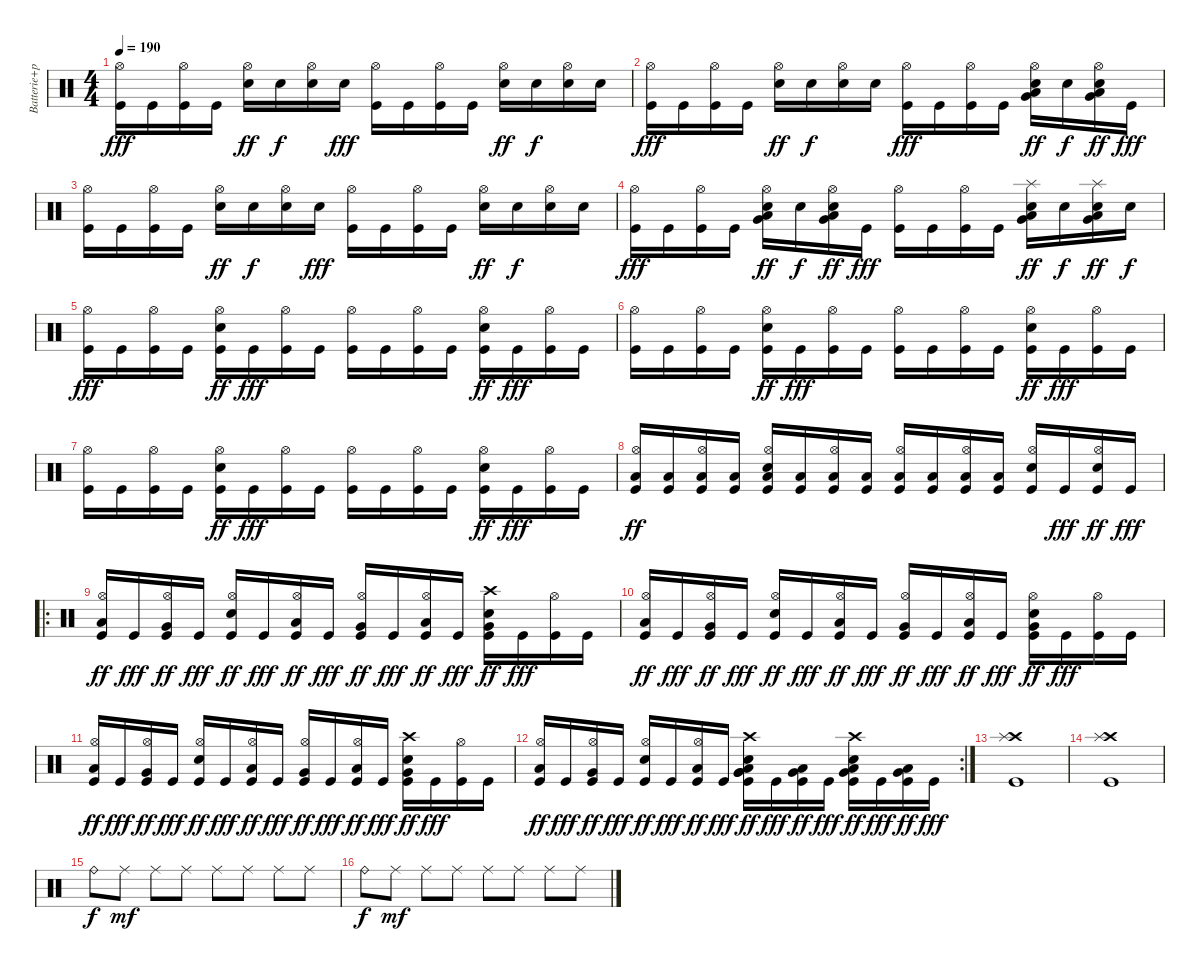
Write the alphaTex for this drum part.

\track ("Batterie+percussions" "Batterie+p") {instrument percussion}
\staff {score}
\articulation defaults
\ts (4 4)
\tempo 190
\clef neutral
\ks c
("Kick (hit)" "Hi-Hat (open)").16{dy fff} "Kick (hit)".16 ("Kick (hit)" "Hi-Hat (open)").16 "Kick (hit)".16 ("Electric Snare (hit)" "Hi-Hat (open)").16{dy ff} "Snare (hit)".16{dy f} ("Snare (hit)" "Hi-Hat (open)").16 "Snare (hit)".16{dy fff} ("Kick (hit)" "Hi-Hat (open)").16 "Kick (hit)".16 ("Kick (hit)" "Hi-Hat (open)").16 "Kick (hit)".16 ("Electric Snare (hit)" "Hi-Hat (open)").16{dy ff} "Snare (hit)".16{dy f} ("Snare (hit)" "Hi-Hat (open)").16 "Snare (hit)".16 |
("Kick (hit)" "Hi-Hat (open)").16{dy fff} "Kick (hit)".16 ("Kick (hit)" "Hi-Hat (open)").16 "Kick (hit)".16 ("Electric Snare (hit)" "Hi-Hat (open)").16{dy ff} "Snare (hit)".16{dy f} ("Snare (hit)" "Hi-Hat (open)").16 "Snare (hit)".16 ("Kick (hit)" "Hi-Hat (open)").16{dy fff} "Kick (hit)".16 ("Kick (hit)" "Hi-Hat (open)").16 "Kick (hit)".16 ("Electric Snare (hit)" "Hi-Hat (open)" "Low Floor Tom (hit)" "Very Low Tom (hit)").16{dy ff} "Snare (hit)".16{dy f} ("Electric Snare (hit)" "Hi-Hat (open)" "Low Floor Tom (hit)" "Very Low Tom (hit)").16{dy ff} "Kick (hit)".16{dy fff} |
("Kick (hit)" "Hi-Hat (open)").16 "Kick (hit)".16 ("Kick (hit)" "Hi-Hat (open)").16 "Kick (hit)".16 ("Electric Snare (hit)" "Hi-Hat (open)").16{dy ff} "Snare (hit)".16{dy f} ("Snare (hit)" "Hi-Hat (open)").16 "Snare (hit)".16{dy fff} ("Kick (hit)" "Hi-Hat (open)").16 "Kick (hit)".16 ("Kick (hit)" "Hi-Hat (open)").16 "Kick (hit)".16 ("Electric Snare (hit)" "Hi-Hat (open)").16{dy ff} "Snare (hit)".16{dy f} ("Snare (hit)" "Hi-Hat (open)").16 "Snare (hit)".16 |
("Kick (hit)" "Hi-Hat (open)").16{dy fff} "Kick (hit)".16 ("Kick (hit)" "Hi-Hat (open)").16 "Kick (hit)".16 ("Electric Snare (hit)" "Hi-Hat (open)" "Low Floor Tom (hit)" "Very Low Tom (hit)").16{dy ff} "Snare (hit)".16{dy f} ("Electric Snare (hit)" "Hi-Hat (open)" "Low Floor Tom (hit)" "Very Low Tom (hit)").16{dy ff} "Kick (hit)".16{dy fff} ("Kick (hit)" "Hi-Hat (open)").16 "Kick (hit)".16 ("Kick (hit)" "Hi-Hat (open)").16 "Kick (hit)".16 ("Electric Snare (hit)" "Splash (hit)" "Low Floor Tom (hit)" "Very Low Tom (hit)").16{dy ff} "Snare (hit)".16{dy f} ("Electric Snare (hit)" "Splash (hit)" "Low Floor Tom (hit)" "Very Low Tom (hit)").16{dy ff} "Snare (hit)".16{dy f} |
("Kick (hit)" "Hi-Hat (open)").16{dy fff} "Kick (hit)".16 ("Kick (hit)" "Hi-Hat (open)").16 "Kick (hit)".16 ("Kick (hit)" "Hi-Hat (open)" "Electric Snare (hit)").16{dy ff} "Kick (hit)".16{dy fff} ("Kick (hit)" "Hi-Hat (open)").16 "Kick (hit)".16 ("Kick (hit)" "Hi-Hat (open)").16 "Kick (hit)".16 ("Kick (hit)" "Hi-Hat (open)").16 "Kick (hit)".16 ("Kick (hit)" "Hi-Hat (open)" "Electric Snare (hit)").16{dy ff} "Kick (hit)".16{dy fff} ("Kick (hit)" "Hi-Hat (open)").16 "Kick (hit)".16 |
("Kick (hit)" "Hi-Hat (open)").16 "Kick (hit)".16 ("Kick (hit)" "Hi-Hat (open)").16 "Kick (hit)".16 ("Kick (hit)" "Hi-Hat (open)" "Electric Snare (hit)").16{dy ff} "Kick (hit)".16{dy fff} ("Kick (hit)" "Hi-Hat (open)").16 "Kick (hit)".16 ("Kick (hit)" "Hi-Hat (open)").16 "Kick (hit)".16 ("Kick (hit)" "Hi-Hat (open)").16 "Kick (hit)".16 ("Kick (hit)" "Hi-Hat (open)" "Electric Snare (hit)").16{dy ff} "Kick (hit)".16{dy fff} ("Kick (hit)" "Hi-Hat (open)").16 "Kick (hit)".16 |
("Kick (hit)" "Hi-Hat (open)").16 "Kick (hit)".16 ("Kick (hit)" "Hi-Hat (open)").16 "Kick (hit)".16 ("Kick (hit)" "Hi-Hat (open)" "Electric Snare (hit)").16{dy ff} "Kick (hit)".16{dy fff} ("Kick (hit)" "Hi-Hat (open)").16 "Kick (hit)".16 ("Kick (hit)" "Hi-Hat (open)").16 "Kick (hit)".16 ("Kick (hit)" "Hi-Hat (open)").16 "Kick (hit)".16 ("Kick (hit)" "Hi-Hat (open)" "Electric Snare (hit)").16{dy ff} "Kick (hit)".16{dy fff} ("Kick (hit)" "Hi-Hat (open)").16 "Kick (hit)".16 |
("Kick (hit)" "Hi-Hat (open)" "Low Tom (hit)").16{dy ff} ("Kick (hit)" "Low Tom (hit)").16 ("Kick (hit)" "Hi-Hat (open)" "Low Tom (hit)").16 ("Kick (hit)" "Low Tom (hit)").16 ("Kick (hit)" "Hi-Hat (open)" "Electric Snare (hit)" "Low Tom (hit)").16 ("Kick (hit)" "Low Tom (hit)").16 ("Kick (hit)" "Hi-Hat (open)" "Low Tom (hit)").16 ("Kick (hit)" "Low Tom (hit)").16 ("Kick (hit)" "Hi-Hat (open)" "Low Floor Tom (hit)").16 ("Kick (hit)" "Low Floor Tom (hit)").16 ("Kick (hit)" "Hi-Hat (open)" "Low Floor Tom (hit)").16 ("Kick (hit)" "Low Floor Tom (hit)").16 ("Kick (hit)" "Hi-Hat (open)" "Electric Snare (hit)").16 "Kick (hit)".16{dy fff} ("Kick (hit)" "Hi-Hat (open)" "Electric Snare (hit)").16{dy ff} "Kick (hit)".16{dy fff} |
\ro
("Kick (hit)" "Hi-Hat (open)" "Low Floor Tom (hit)").16{dy ff} "Kick (hit)".16{dy fff} ("Kick (hit)" "Hi-Hat (open)" "Very Low Tom (hit)").16{dy ff} "Kick (hit)".16{dy fff} ("Kick (hit)" "Hi-Hat (open)" "Electric Snare (hit)").16{dy ff} "Kick (hit)".16{dy fff} ("Kick (hit)" "Hi-Hat (open)" "Low Floor Tom (hit)").16{dy ff} "Kick (hit)".16{dy fff} ("Kick (hit)" "Hi-Hat (open)" "Very Low Tom (hit)").16{dy ff} "Kick (hit)".16{dy fff} ("Kick (hit)" "Hi-Hat (open)" "Low Floor Tom (hit)").16{dy ff} "Kick (hit)".16{dy fff} ("Kick (hit)" "Crash high (hit)" "Electric Snare (hit)" "Very Low Tom (hit)").16{dy ff} "Kick (hit)".16{dy fff} ("Kick (hit)" "Hi-Hat (open)").16 "Kick (hit)".16 |
("Kick (hit)" "Hi-Hat (open)" "Low Floor Tom (hit)").16{dy ff} "Kick (hit)".16{dy fff} ("Kick (hit)" "Hi-Hat (open)" "Very Low Tom (hit)").16{dy ff} "Kick (hit)".16{dy fff} ("Kick (hit)" "Hi-Hat (open)" "Electric Snare (hit)").16{dy ff} "Kick (hit)".16{dy fff} ("Kick (hit)" "Hi-Hat (open)" "Low Floor Tom (hit)").16{dy ff} "Kick (hit)".16{dy fff} ("Kick (hit)" "Hi-Hat (open)" "Very Low Tom (hit)").16{dy ff} "Kick (hit)".16{dy fff} ("Kick (hit)" "Hi-Hat (open)" "Low Floor Tom (hit)").16{dy ff} "Kick (hit)".16{dy fff} ("Kick (hit)" "Hi-Hat (open)" "Electric Snare (hit)" "Very Low Tom (hit)").16{dy ff} "Kick (hit)".16{dy fff} ("Kick (hit)" "Hi-Hat (open)").16 "Kick (hit)".16 |
("Kick (hit)" "Hi-Hat (open)" "Low Floor Tom (hit)").16{dy ff} "Kick (hit)".16{dy fff} ("Kick (hit)" "Hi-Hat (open)" "Very Low Tom (hit)").16{dy ff} "Kick (hit)".16{dy fff} ("Kick (hit)" "Hi-Hat (open)" "Electric Snare (hit)").16{dy ff} "Kick (hit)".16{dy fff} ("Kick (hit)" "Hi-Hat (open)" "Low Floor Tom (hit)").16{dy ff} "Kick (hit)".16{dy fff} ("Kick (hit)" "Hi-Hat (open)" "Very Low Tom (hit)").16{dy ff} "Kick (hit)".16{dy fff} ("Kick (hit)" "Hi-Hat (open)" "Low Floor Tom (hit)").16{dy ff} "Kick (hit)".16{dy fff} ("Kick (hit)" "Crash high (hit)" "Electric Snare (hit)" "Very Low Tom (hit)").16{dy ff} "Kick (hit)".16{dy fff} ("Kick (hit)" "Hi-Hat (open)").16 "Kick (hit)".16 |
\rc 2
("Kick (hit)" "Hi-Hat (open)" "Low Floor Tom (hit)").16{dy ff} "Kick (hit)".16{dy fff} ("Kick (hit)" "Hi-Hat (open)" "Very Low Tom (hit)").16{dy ff} "Kick (hit)".16{dy fff} ("Kick (hit)" "Hi-Hat (open)" "Electric Snare (hit)").16{dy ff} "Kick (hit)".16{dy fff} ("Kick (hit)" "Hi-Hat (open)" "Low Floor Tom (hit)").16{dy ff} "Kick (hit)".16{dy fff} ("Kick (hit)" "Low Floor Tom (hit)" "Very Low Tom (hit)" "Crash high (hit)" "Electric Snare (hit)" "Very Low Tom (hit)").16{dy ff} "Kick (hit)".16{dy fff} ("Kick (hit)" "Low Floor Tom (hit)" "Very Low Tom (hit)").16{dy ff} "Kick (hit)".16{dy fff} ("Kick (hit)" "Low Floor Tom (hit)" "Very Low Tom (hit)" "Crash high (hit)" "Electric Snare (hit)").16{dy ff} "Kick (hit)".16{dy fff} ("Kick (hit)" "Low Floor Tom (hit)" "Very Low Tom (hit)").16{dy ff} "Kick (hit)".16{dy fff} |
("Kick (hit)" "Crash high (hit)" "Splash (hit)").1 |
("Kick (hit)" "Crash high (hit)" "Splash (hit)").1 |
"Ride (bell)".8{dy f} "Ride (middle)".8{dy mf} "Ride (middle)".8 "Ride (middle)".8 "Ride (middle)".8 "Ride (middle)".8 "Ride (middle)".8 "Ride (middle)".8 |
"Ride (bell)".8{dy f} "Ride (middle)".8{dy mf} "Ride (middle)".8 "Ride (middle)".8 "Ride (middle)".8 "Ride (middle)".8 "Ride (middle)".8 "Ride (middle)".8
